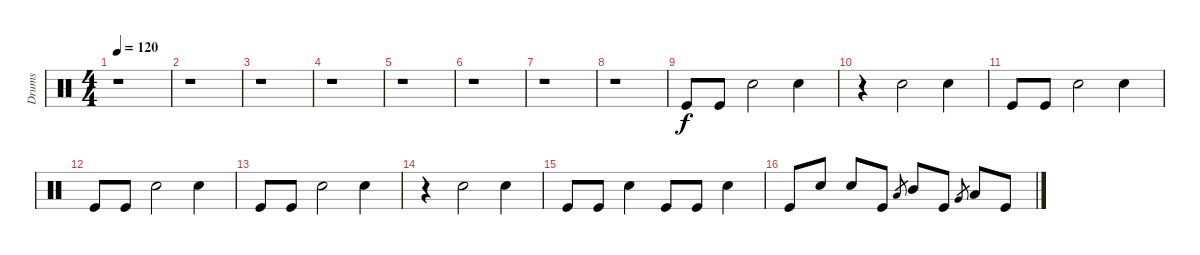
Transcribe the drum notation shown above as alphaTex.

\track ("Drums" "Drums") {instrument percussion}
\staff {score}
\articulation defaults
\ts (4 4)
\tempo 120
\clef neutral
\ks c
r.1{dy f} |
r.1 |
r.1 |
r.1 |
r.1 |
r.1 |
r.1 |
r.1 |
"Kick (hit)".8 "Kick (hit)".8 "Electric Snare (hit)".2 "Electric Snare (hit)".4 |
r.4 "Electric Snare (hit)".2 "Electric Snare (hit)".4 |
"Kick (hit)".8 "Kick (hit)".8 "Electric Snare (hit)".2 "Electric Snare (hit)".4 |
"Kick (hit)".8 "Kick (hit)".8 "Electric Snare (hit)".2 "Electric Snare (hit)".4 |
"Kick (hit)".8 "Kick (hit)".8 "Electric Snare (hit)".2 "Electric Snare (hit)".4 |
r.4 "Electric Snare (hit)".2 "Electric Snare (hit)".4 |
"Kick (hit)".8 "Kick (hit)".8 "Electric Snare (hit)".4 "Kick (hit)".8 "Kick (hit)".8 "Electric Snare (hit)".4 |
"Kick (hit)".8 "Electric Snare (hit)".8 "Electric Snare (hit)".8 "Kick (hit)".8 "Low Tom (hit)".8{gr} "Mid Tom (hit)".8 "Kick (hit)".8 "Very Low Tom (hit)".8{gr} "Low Tom (hit)".8 "Kick (hit)".8
